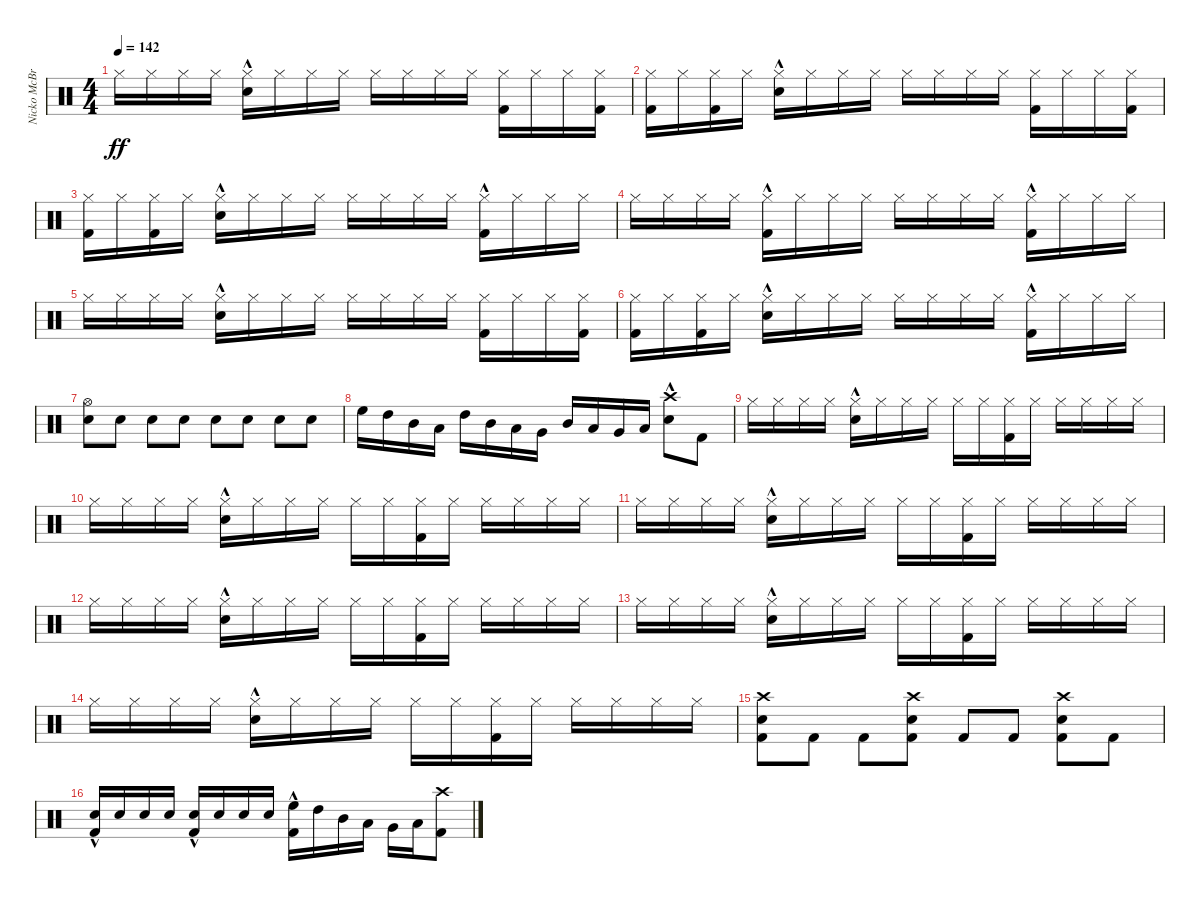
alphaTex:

\track ("Nicko McBrain" "Nicko McBr") {instrument percussion}
\staff {score}
\articulation defaults
\ts (4 4)
\tempo 142
\clef neutral
\ks c "Hi-Hat (closed)".16{dy ff} "Hi-Hat (closed)".16 "Hi-Hat (closed)".16 "Hi-Hat (closed)".16
("Snare (hit) 2"{hac} "Hi-Hat (closed)").16 "Hi-Hat (closed)".16 "Hi-Hat (closed)".16 "Hi-Hat (closed)".16 "Hi-Hat (closed)".16 "Hi-Hat (closed)".16 "Hi-Hat (closed)".16 "Hi-Hat (closed)".16 ("Kick (hit) 2" "Hi-Hat (closed)").16 "Hi-Hat (closed)".16 "Hi-Hat (closed)".16 ("Kick (hit) 2" "Hi-Hat (closed)").16 |
("Kick (hit) 2" "Hi-Hat (closed)").16 "Hi-Hat (closed)".16 ("Kick (hit) 2" "Hi-Hat (closed)").16 "Hi-Hat (closed)".16 ("Snare (hit) 2"{hac} "Hi-Hat (closed)").16 "Hi-Hat (closed)".16 "Hi-Hat (closed)".16 "Hi-Hat (closed)".16 "Hi-Hat (closed)".16 "Hi-Hat (closed)".16 "Hi-Hat (closed)".16 "Hi-Hat (closed)".16 ("Kick (hit) 2" "Hi-Hat (closed)").16 "Hi-Hat (closed)".16 "Hi-Hat (closed)".16 ("Kick (hit) 2" "Hi-Hat (closed)").16 |
("Kick (hit) 2" "Hi-Hat (closed)").16 "Hi-Hat (closed)".16 ("Kick (hit) 2" "Hi-Hat (closed)").16 "Hi-Hat (closed)".16 ("Snare (hit) 2"{hac} "Hi-Hat (closed)").16 "Hi-Hat (closed)".16 "Hi-Hat (closed)".16 "Hi-Hat (closed)".16 "Hi-Hat (closed)".16 "Hi-Hat (closed)".16 "Hi-Hat (closed)".16 "Hi-Hat (closed)".16 ("Kick (hit) 2"{hac} "Hi-Hat (closed)").16 "Hi-Hat (closed)".16 "Hi-Hat (closed)".16 "Hi-Hat (closed)".16 |
"Hi-Hat (closed)".16 "Hi-Hat (closed)".16 "Hi-Hat (closed)".16 "Hi-Hat (closed)".16 ("Kick (hit) 2"{hac} "Hi-Hat (closed)").16 "Hi-Hat (closed)".16 "Hi-Hat (closed)".16 "Hi-Hat (closed)".16 "Hi-Hat (closed)".16 "Hi-Hat (closed)".16 "Hi-Hat (closed)".16 "Hi-Hat (closed)".16 ("Kick (hit) 2"{hac} "Hi-Hat (closed)").16 "Hi-Hat (closed)".16 "Hi-Hat (closed)".16 "Hi-Hat (closed)".16 |
"Hi-Hat (closed)".16 "Hi-Hat (closed)".16 "Hi-Hat (closed)".16 "Hi-Hat (closed)".16 ("Snare (hit) 2"{hac} "Hi-Hat (closed)").16 "Hi-Hat (closed)".16 "Hi-Hat (closed)".16 "Hi-Hat (closed)".16 "Hi-Hat (closed)".16 "Hi-Hat (closed)".16 "Hi-Hat (closed)".16 "Hi-Hat (closed)".16 ("Kick (hit) 2" "Hi-Hat (closed)").16 "Hi-Hat (closed)".16 "Hi-Hat (closed)".16 ("Kick (hit) 2" "Hi-Hat (closed)").16 |
("Kick (hit) 2" "Hi-Hat (closed)").16 "Hi-Hat (closed)".16 ("Kick (hit) 2" "Hi-Hat (closed)").16 "Hi-Hat (closed)".16 ("Snare (hit) 2"{hac} "Hi-Hat (closed)").16 "Hi-Hat (closed)".16 "Hi-Hat (closed)".16 "Hi-Hat (closed)".16 "Hi-Hat (closed)".16 "Hi-Hat (closed)".16 "Hi-Hat (closed)".16 "Hi-Hat (closed)".16 ("Kick (hit) 2"{hac} "Hi-Hat (closed)").16 "Hi-Hat (closed)".16 "Hi-Hat (closed)".16 "Hi-Hat (closed)".16 |
("Snare (hit) 2" "Hi-Hat (open)").8 "Snare (hit) 2".8{volume 0} "Snare (hit) 2".8{volume 4} "Snare (hit) 2".8{volume 8} "Snare (hit) 2".8{volume 12} "Snare (hit) 2".8{volume 16} "Snare (hit) 2".8 "Snare (hit) 2".8 |
"High Floor Tom (hit)".16 "High Tom (hit)".16 "Mid Tom (hit)".16 "Low Tom (hit)".16 "High Tom (hit)".16 "Mid Tom (hit)".16 "Low Tom (hit)".16 "Very Low Tom (hit)".16 "Mid Tom (hit)".16 "Low Tom (hit)".16 "Very Low Tom (hit)".16 "Low Floor Tom (hit)".16 ("Snare (hit) 2" "Crash high (hit)"{hac}).8 "Kick (hit) 2".8 |
"Hi-Hat (closed)".16 "Hi-Hat (closed)".16 "Hi-Hat (closed)".16 "Hi-Hat (closed)".16 ("Snare (hit) 2"{hac} "Hi-Hat (closed)").16 "Hi-Hat (closed)".16 "Hi-Hat (closed)".16 "Hi-Hat (closed)".16 "Hi-Hat (closed)".16 "Hi-Hat (closed)".16 ("Kick (hit) 2" "Hi-Hat (closed)").16 "Hi-Hat (closed)".16 "Hi-Hat (closed)".16 "Hi-Hat (closed)".16 "Hi-Hat (closed)".16 "Hi-Hat (closed)".16 |
"Hi-Hat (closed)".16 "Hi-Hat (closed)".16 "Hi-Hat (closed)".16 "Hi-Hat (closed)".16 ("Snare (hit) 2"{hac} "Hi-Hat (closed)").16 "Hi-Hat (closed)".16 "Hi-Hat (closed)".16 "Hi-Hat (closed)".16 "Hi-Hat (closed)".16 "Hi-Hat (closed)".16 ("Kick (hit) 2" "Hi-Hat (closed)").16 "Hi-Hat (closed)".16 "Hi-Hat (closed)".16 "Hi-Hat (closed)".16 "Hi-Hat (closed)".16 "Hi-Hat (closed)".16 |
"Hi-Hat (closed)".16 "Hi-Hat (closed)".16 "Hi-Hat (closed)".16 "Hi-Hat (closed)".16 ("Snare (hit) 2"{hac} "Hi-Hat (closed)").16 "Hi-Hat (closed)".16 "Hi-Hat (closed)".16 "Hi-Hat (closed)".16 "Hi-Hat (closed)".16 "Hi-Hat (closed)".16 ("Kick (hit) 2" "Hi-Hat (closed)").16 "Hi-Hat (closed)".16 "Hi-Hat (closed)".16 "Hi-Hat (closed)".16 "Hi-Hat (closed)".16 "Hi-Hat (closed)".16 |
"Hi-Hat (closed)".16 "Hi-Hat (closed)".16 "Hi-Hat (closed)".16 "Hi-Hat (closed)".16 ("Snare (hit) 2"{hac} "Hi-Hat (closed)").16 "Hi-Hat (closed)".16 "Hi-Hat (closed)".16 "Hi-Hat (closed)".16 "Hi-Hat (closed)".16 "Hi-Hat (closed)".16 ("Kick (hit) 2" "Hi-Hat (closed)").16 "Hi-Hat (closed)".16 "Hi-Hat (closed)".16 "Hi-Hat (closed)".16 "Hi-Hat (closed)".16 "Hi-Hat (closed)".16 |
"Hi-Hat (closed)".16 "Hi-Hat (closed)".16 "Hi-Hat (closed)".16 "Hi-Hat (closed)".16 ("Snare (hit) 2"{hac} "Hi-Hat (closed)").16 "Hi-Hat (closed)".16 "Hi-Hat (closed)".16 "Hi-Hat (closed)".16 "Hi-Hat (closed)".16 "Hi-Hat (closed)".16 ("Kick (hit) 2" "Hi-Hat (closed)").16 "Hi-Hat (closed)".16 "Hi-Hat (closed)".16 "Hi-Hat (closed)".16 "Hi-Hat (closed)".16 "Hi-Hat (closed)".16 |
"Hi-Hat (closed)".16 "Hi-Hat (closed)".16 "Hi-Hat (closed)".16 "Hi-Hat (closed)".16 ("Snare (hit) 2"{hac} "Hi-Hat (closed)").16 "Hi-Hat (closed)".16 "Hi-Hat (closed)".16 "Hi-Hat (closed)".16 "Hi-Hat (closed)".16 "Hi-Hat (closed)".16 ("Kick (hit) 2" "Hi-Hat (closed)").16 "Hi-Hat (closed)".16 "Hi-Hat (closed)".16 "Hi-Hat (closed)".16 "Hi-Hat (closed)".16 "Hi-Hat (closed)".16 |
("Kick (hit) 2" "Snare (hit) 2" "Crash high (hit)").8 "Kick (hit) 2".8 "Kick (hit) 2".8 ("Kick (hit) 2" "Snare (hit) 2" "Crash high (hit)").8 "Kick (hit) 2".8 "Kick (hit) 2".8 ("Kick (hit) 2" "Snare (hit) 2" "Crash high (hit)").8 "Kick (hit) 2".8 |
("Kick (hit) 2"{hac} "Snare (hit) 2").16 "Snare (hit) 2".16 "Snare (hit) 2".16 "Snare (hit) 2".16 ("Kick (hit) 2"{hac} "Snare (hit) 2").16 "Snare (hit) 2".16 "Snare (hit) 2".16 "Snare (hit) 2".16 ("Kick (hit) 2"{hac} "High Floor Tom (hit)").16 "High Tom (hit)".16 "Mid Tom (hit)".16 "Low Tom (hit)".16 "Very Low Tom (hit)".16 "Low Floor Tom (hit)".16 ("Kick (hit) 2" "Crash high (hit)").8
